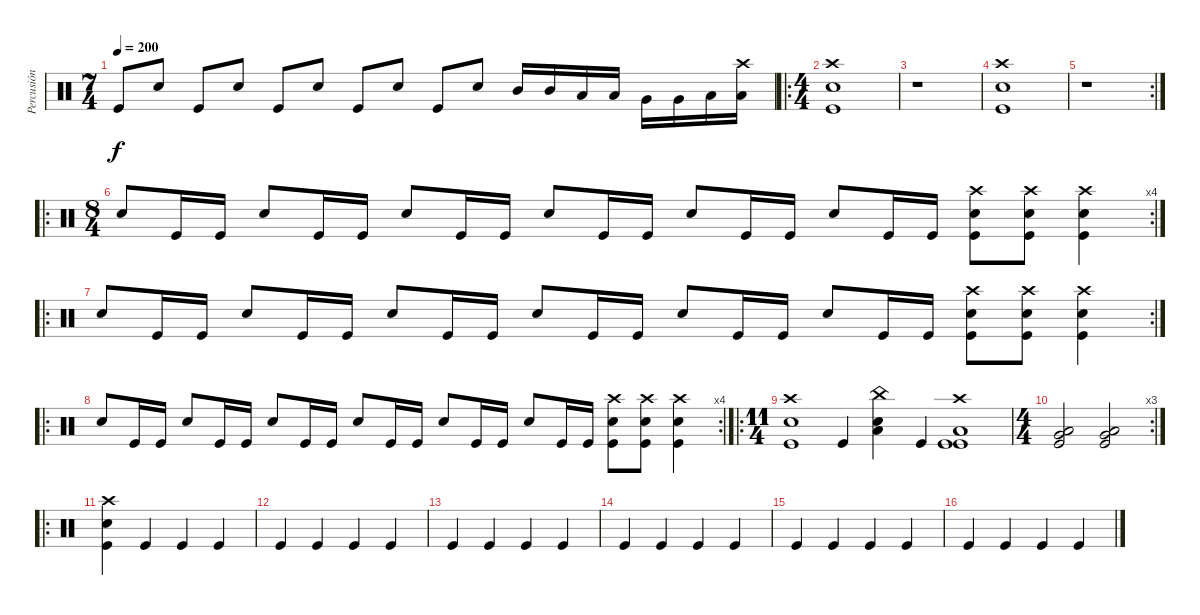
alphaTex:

\track ("Percusión" "Percusión") {instrument percussion}
\staff {score}
\articulation defaults
\ts (7 4)
\tempo 200
\clef neutral
\ks c "Kick (hit)".8{dy f} "Snare (hit) 2".8 "Kick (hit)".8 "Snare (hit) 2".8 "Kick (hit)".8 "Snare (hit) 2".8 "Kick (hit)".8 "Snare (hit) 2".8 "Kick (hit)".8 "Snare (hit) 2".8 "Mid Tom (hit)".16 "Mid Tom (hit)".16 "Low Tom (hit)".16 "Low Tom (hit)".16 "Very Low Tom (hit)".16 "Very Low Tom (hit)".16 "Low Floor Tom (hit)".16
("Crash high (hit)" "Low Floor Tom (hit)").16 |
\ro
\ts (4 4)
("Crash high (hit)" "Snare (hit) 2" "Kick (hit)").1 |
r.1 |
("Crash high (hit)" "Snare (hit) 2" "Kick (hit)").1 |
\rc 2
r.1 |
\ro
\rc 4
\ts (8 4)
"Snare (hit) 2".8 "Kick (hit)".16 "Kick (hit)".16 "Snare (hit) 2".8 "Kick (hit)".16 "Kick (hit)".16 "Snare (hit) 2".8 "Kick (hit)".16 "Kick (hit)".16 "Snare (hit) 2".8 "Kick (hit)".16 "Kick (hit)".16 "Snare (hit) 2".8 "Kick (hit)".16 "Kick (hit)".16 "Snare (hit) 2".8 "Kick (hit)".16 "Kick (hit)".16 ("Crash high (hit)" "Snare (hit) 2" "Kick (hit)").8 ("Crash high (hit)" "Snare (hit) 2" "Kick (hit)").8 ("Crash high (hit)" "Snare (hit) 2" "Kick (hit)").4 |
\ro
\rc 2 "Snare (hit) 2".8 "Kick (hit)".16 "Kick (hit)".16 "Snare (hit) 2".8 "Kick (hit)".16 "Kick (hit)".16 "Snare (hit) 2".8 "Kick (hit)".16 "Kick (hit)".16 "Snare (hit) 2".8 "Kick (hit)".16 "Kick (hit)".16 "Snare (hit) 2".8 "Kick (hit)".16 "Kick (hit)".16 "Snare (hit) 2".8 "Kick (hit)".16 "Kick (hit)".16
("Crash high (hit)" "Snare (hit) 2" "Kick (hit)").8 ("Crash high (hit)" "Snare (hit) 2" "Kick (hit)").8 ("Crash high (hit)" "Snare (hit) 2" "Kick (hit)").4 |
\ro
\rc 4 "Snare (hit) 2".8 "Kick (hit)".16 "Kick (hit)".16 "Snare (hit) 2".8 "Kick (hit)".16 "Kick (hit)".16 "Snare (hit) 2".8 "Kick (hit)".16 "Kick (hit)".16 "Snare (hit) 2".8 "Kick (hit)".16 "Kick (hit)".16 "Snare (hit) 2".8 "Kick (hit)".16 "Kick (hit)".16 "Snare (hit) 2".8 "Kick (hit)".16 "Kick (hit)".16
("Crash high (hit)" "Snare (hit) 2" "Kick (hit)").8 ("Crash high (hit)" "Snare (hit) 2" "Kick (hit)").8 ("Crash high (hit)" "Snare (hit) 2" "Kick (hit)").4 |
\ro
\ts (11 4)
("Crash high (hit)" "Snare (hit) 2" "Kick (hit)").1 "Kick (hit)".4 ("China (hit)" "Snare (hit) 2" "Low Floor Tom (hit)").4 "Kick (hit)".4 ("Crash high (hit)" "Kick (hit)" "Low Floor Tom (hit)" "Kick (hit)").1 |
\rc 3
\ts (4 4)
("Very Low Tom (hit)" "Low Floor Tom (hit)" "Kick (hit)").2 ("Very Low Tom (hit)" "Low Floor Tom (hit)" "Kick (hit)").2 |
\ro
("Crash high (hit)" "Snare (hit) 2" "Kick (hit)").4 "Kick (hit)".4 "Kick (hit)".4 "Kick (hit)".4 |
"Kick (hit)".4 "Kick (hit)".4 "Kick (hit)".4 "Kick (hit)".4 |
"Kick (hit)".4 "Kick (hit)".4 "Kick (hit)".4 "Kick (hit)".4 |
"Kick (hit)".4 "Kick (hit)".4 "Kick (hit)".4 "Kick (hit)".4 |
"Kick (hit)".4 "Kick (hit)".4 "Kick (hit)".4 "Kick (hit)".4 |
"Kick (hit)".4 "Kick (hit)".4 "Kick (hit)".4 "Kick (hit)".4
